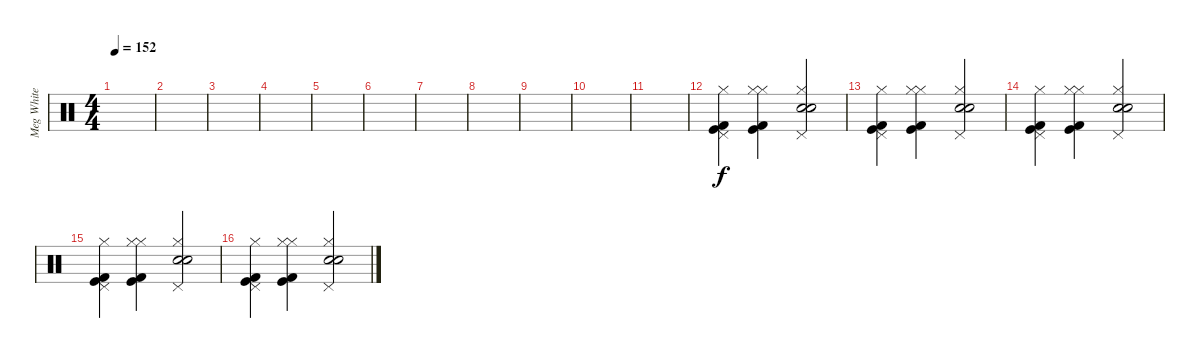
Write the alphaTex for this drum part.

\track ("Meg White" "Meg White") {instrument percussion}
\staff {score}
\articulation defaults
\ts (4 4)
\tempo 152
\clef neutral
\ks c
|
|
|
|
|
|
|
|
|
|
|
("Kick (hit) 2" "Kick (hit)" "Pedal Hi-Hat (hit)" "Hi-Hat (closed)").4 ("Kick (hit) 2" "Kick (hit)" "Hi-Hat (closed)" "Hi-Hat (closed)").4 ("Pedal Hi-Hat (hit)" "Electric Snare (hit)" "Snare (hit) 2" "Hi-Hat (closed)").2 |
("Kick (hit) 2" "Kick (hit)" "Pedal Hi-Hat (hit)" "Hi-Hat (closed)").4 ("Kick (hit) 2" "Kick (hit)" "Hi-Hat (closed)" "Hi-Hat (closed)").4 ("Pedal Hi-Hat (hit)" "Electric Snare (hit)" "Snare (hit) 2" "Hi-Hat (closed)").2 |
("Kick (hit) 2" "Kick (hit)" "Pedal Hi-Hat (hit)" "Hi-Hat (closed)").4 ("Kick (hit) 2" "Kick (hit)" "Hi-Hat (closed)" "Hi-Hat (closed)").4 ("Pedal Hi-Hat (hit)" "Electric Snare (hit)" "Snare (hit) 2" "Hi-Hat (closed)").2 |
("Kick (hit) 2" "Kick (hit)" "Pedal Hi-Hat (hit)" "Hi-Hat (closed)").4 ("Kick (hit) 2" "Kick (hit)" "Hi-Hat (closed)" "Hi-Hat (closed)").4 ("Pedal Hi-Hat (hit)" "Electric Snare (hit)" "Snare (hit) 2" "Hi-Hat (closed)").2 |
("Kick (hit) 2" "Kick (hit)" "Pedal Hi-Hat (hit)" "Hi-Hat (closed)").4 ("Kick (hit) 2" "Kick (hit)" "Hi-Hat (closed)" "Hi-Hat (closed)").4 ("Pedal Hi-Hat (hit)" "Electric Snare (hit)" "Snare (hit) 2" "Hi-Hat (closed)").2
